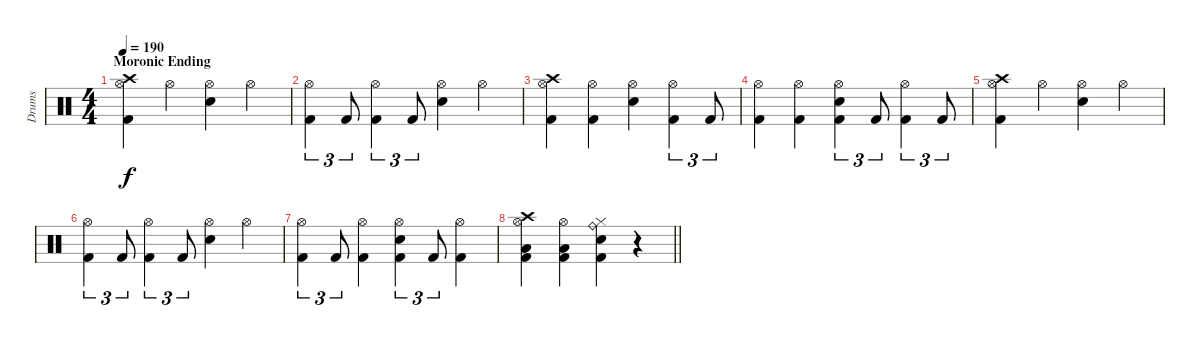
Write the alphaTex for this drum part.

\track ("Drums" "Drums") {instrument percussion}
\staff {score}
\articulation defaults
\ts (4 4)
\section ("" "Moronic Ending")
\tempo 190
\clef neutral
\ks c
("Crash high (hit)" "Hi-Hat (open)" "Kick (hit) 2").4{dy f} "Hi-Hat (open)".4 ("Hi-Hat (open)" "Snare (hit) 2").4 "Hi-Hat (open)".4 |
("Hi-Hat (open)" "Kick (hit) 2").4{tu (3 2)} "Kick (hit) 2".8{tu (3 2)} ("Hi-Hat (open)" "Kick (hit) 2").4{tu (3 2)} "Kick (hit) 2".8{tu (3 2)} ("Hi-Hat (open)" "Snare (hit) 2").4 "Hi-Hat (open)".4 |
("Crash high (hit)" "Hi-Hat (open)" "Kick (hit) 2").4 ("Hi-Hat (open)" "Kick (hit) 2").4 ("Hi-Hat (open)" "Snare (hit) 2").4 ("Hi-Hat (open)" "Kick (hit) 2").4{tu (3 2)} "Kick (hit) 2".8{tu (3 2)} |
("Hi-Hat (open)" "Kick (hit) 2").4 ("Hi-Hat (open)" "Kick (hit) 2").4 ("Hi-Hat (open)" "Snare (hit) 2" "Kick (hit) 2").4{tu (3 2)} "Kick (hit) 2".8{tu (3 2)} ("Hi-Hat (open)" "Kick (hit) 2").4{tu (3 2)} "Kick (hit) 2".8{tu (3 2)} |
("Crash high (hit)" "Hi-Hat (open)" "Kick (hit) 2").4 "Hi-Hat (open)".4 ("Hi-Hat (open)" "Snare (hit) 2").4 "Hi-Hat (open)".4 |
("Hi-Hat (open)" "Kick (hit) 2").4{tu (3 2)} "Kick (hit) 2".8{tu (3 2)} ("Hi-Hat (open)" "Kick (hit) 2").4{tu (3 2)} "Kick (hit) 2".8{tu (3 2)} ("Hi-Hat (open)" "Snare (hit) 2").4 "Hi-Hat (open)".4 |
("Hi-Hat (open)" "Kick (hit) 2").4{tu (3 2)} "Kick (hit) 2".8{tu (3 2)} ("Hi-Hat (open)" "Kick (hit) 2").4 ("Hi-Hat (open)" "Snare (hit) 2" "Kick (hit) 2").4{tu (3 2)} "Kick (hit) 2".8{tu (3 2)} ("Hi-Hat (open)" "Kick (hit) 2").4 |
\barLineRight lightlight
("Crash high (hit)" "Hi-Hat (open)" "Low Floor Tom (hit)" "Kick (hit) 2").4 ("Hi-Hat (open)" "Low Floor Tom (hit)" "Kick (hit) 2").4 ("Ride (bell)" "Hi-Hat (closed)" "Snare (hit) 2" "Kick (hit) 2").4 r.4
